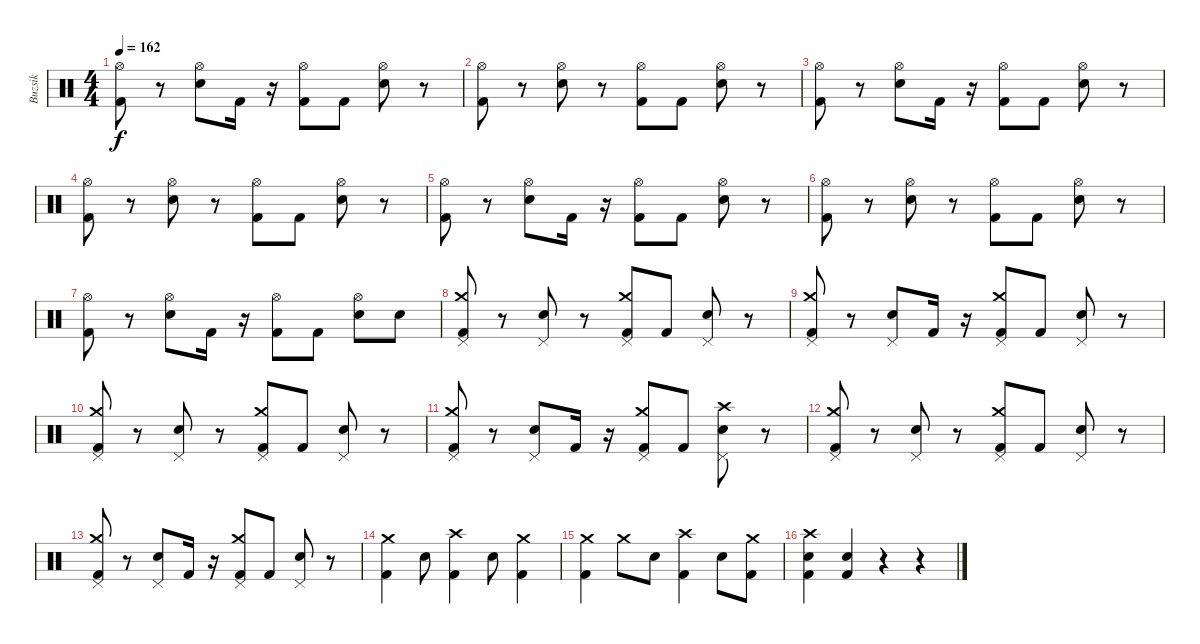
\track ("Buzsik" "Buzsik") {instrument percussion}
\staff {score}
\articulation defaults
\ts (4 4)
\tempo 162
\clef neutral
\ks c
("Hi-Hat (open)" "Kick (hit) 2").8{dy f} r.8 ("Hi-Hat (open)" "Electric Snare (hit)").8 "Kick (hit) 2".16 r.16 ("Hi-Hat (open)" "Kick (hit) 2").8 "Kick (hit) 2".8 ("Hi-Hat (open)" "Electric Snare (hit)").8 r.8 |
("Hi-Hat (open)" "Kick (hit) 2").8 r.8 ("Hi-Hat (open)" "Electric Snare (hit)").8 r.8 ("Hi-Hat (open)" "Kick (hit) 2").8 "Kick (hit) 2".8 ("Hi-Hat (open)" "Electric Snare (hit)").8 r.8 |
("Hi-Hat (open)" "Kick (hit) 2").8 r.8 ("Hi-Hat (open)" "Electric Snare (hit)").8 "Kick (hit) 2".16 r.16 ("Hi-Hat (open)" "Kick (hit) 2").8 "Kick (hit) 2".8 ("Hi-Hat (open)" "Electric Snare (hit)").8 r.8 |
("Hi-Hat (open)" "Kick (hit) 2").8 r.8 ("Hi-Hat (open)" "Electric Snare (hit)").8 r.8 ("Hi-Hat (open)" "Kick (hit) 2").8 "Kick (hit) 2".8 ("Hi-Hat (open)" "Electric Snare (hit)").8 r.8 |
("Hi-Hat (open)" "Kick (hit) 2").8 r.8 ("Hi-Hat (open)" "Electric Snare (hit)").8 "Kick (hit) 2".16 r.16 ("Hi-Hat (open)" "Kick (hit) 2").8 "Kick (hit) 2".8 ("Hi-Hat (open)" "Electric Snare (hit)").8 r.8 |
("Hi-Hat (open)" "Kick (hit) 2").8 r.8 ("Hi-Hat (open)" "Electric Snare (hit)").8 r.8 ("Hi-Hat (open)" "Kick (hit) 2").8 "Kick (hit) 2".8 ("Hi-Hat (open)" "Electric Snare (hit)").8 r.8 |
("Hi-Hat (open)" "Kick (hit) 2").8 r.8 ("Hi-Hat (open)" "Electric Snare (hit)").8 "Kick (hit) 2".16 r.16 ("Hi-Hat (open)" "Kick (hit) 2").8 "Kick (hit) 2".8 ("Hi-Hat (open)" "Electric Snare (hit)").8 "Electric Snare (hit)".8 |
("Crash medium (hit)" "Pedal Hi-Hat (hit)" "Kick (hit) 2").8 r.8 ("Pedal Hi-Hat (hit)" "Electric Snare (hit)").8 r.8 ("Crash medium (hit)" "Pedal Hi-Hat (hit)" "Kick (hit) 2").8 "Kick (hit) 2".8 ("Pedal Hi-Hat (hit)" "Electric Snare (hit)").8 r.8 |
("Crash medium (hit)" "Pedal Hi-Hat (hit)" "Kick (hit) 2").8 r.8 ("Pedal Hi-Hat (hit)" "Electric Snare (hit)").8 "Kick (hit) 2".16 r.16 ("Crash medium (hit)" "Pedal Hi-Hat (hit)" "Kick (hit) 2").8 "Kick (hit) 2".8 ("Pedal Hi-Hat (hit)" "Electric Snare (hit)").8 r.8 |
("Crash medium (hit)" "Pedal Hi-Hat (hit)" "Kick (hit) 2").8 r.8 ("Pedal Hi-Hat (hit)" "Electric Snare (hit)").8 r.8 ("Crash medium (hit)" "Pedal Hi-Hat (hit)" "Kick (hit) 2").8 "Kick (hit) 2".8 ("Pedal Hi-Hat (hit)" "Electric Snare (hit)").8 r.8 |
("Crash medium (hit)" "Pedal Hi-Hat (hit)" "Kick (hit) 2").8 r.8 ("Pedal Hi-Hat (hit)" "Electric Snare (hit)").8 "Kick (hit) 2".16 r.16 ("Crash medium (hit)" "Pedal Hi-Hat (hit)" "Kick (hit) 2").8 "Kick (hit) 2".8 ("Crash high (hit)" "Pedal Hi-Hat (hit)" "Electric Snare (hit)").8 r.8 |
("Crash medium (hit)" "Pedal Hi-Hat (hit)" "Kick (hit) 2").8 r.8 ("Pedal Hi-Hat (hit)" "Electric Snare (hit)").8 r.8 ("Crash medium (hit)" "Pedal Hi-Hat (hit)" "Kick (hit) 2").8 "Kick (hit) 2".8 ("Pedal Hi-Hat (hit)" "Electric Snare (hit)").8 r.8 |
("Crash medium (hit)" "Pedal Hi-Hat (hit)" "Kick (hit) 2").8 r.8 ("Pedal Hi-Hat (hit)" "Electric Snare (hit)").8 "Kick (hit) 2".16 r.16 ("Crash medium (hit)" "Pedal Hi-Hat (hit)" "Kick (hit) 2").8 "Kick (hit) 2".8 ("Pedal Hi-Hat (hit)" "Electric Snare (hit)").8 r.8 |
("Crash medium (hit)" "Kick (hit) 2").4 "Electric Snare (hit)".8 ("Crash high (hit)" "Kick (hit) 2").4 "Electric Snare (hit)".8 ("Crash medium (hit)" "Kick (hit) 2").4 |
("Crash medium (hit)" "Kick (hit) 2").4 "Crash medium (hit)".8 "Electric Snare (hit)".8 ("Crash high (hit)" "Kick (hit) 2").4 "Electric Snare (hit)".8 ("Crash medium (hit)" "Kick (hit) 2").8 |
("Crash high (hit)" "Kick (hit) 2" "Electric Snare (hit)").4 ("Kick (hit) 2" "Electric Snare (hit)").4 r.4 r.4
